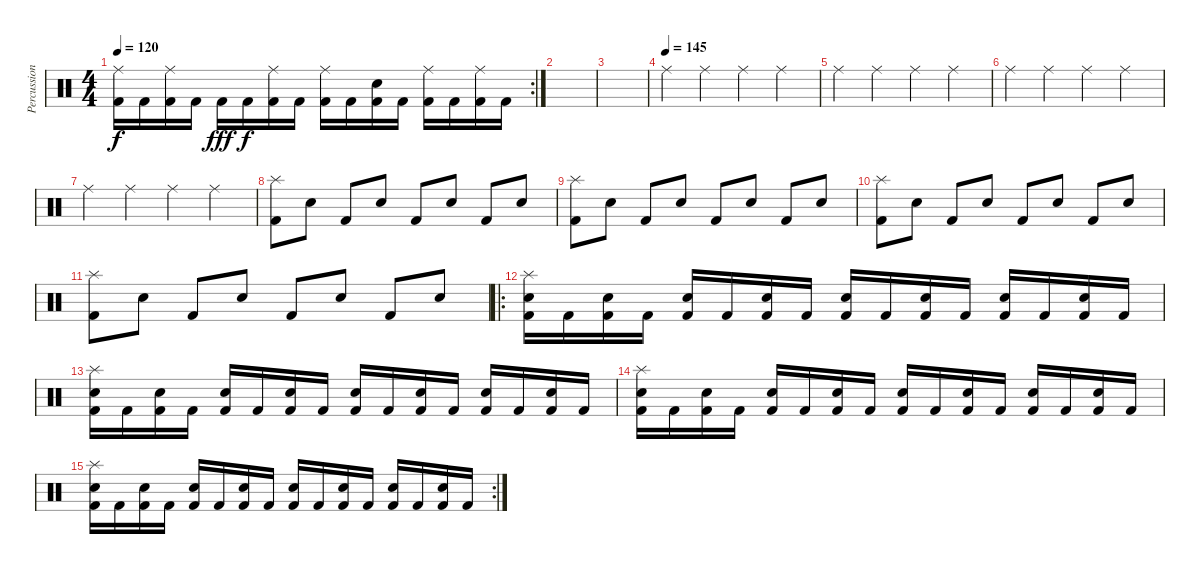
\track ("Percussions" "Percussion") {instrument percussion}
\staff {score}
\articulation defaults
\rc 2
\ts (4 4)
\tempo 120
\clef neutral
\ks c
("Ride (middle)" "Kick (hit) 2").16{dy f} "Kick (hit) 2".16 ("Ride (middle)" "Kick (hit) 2").16 "Kick (hit) 2".16 "Kick (hit) 2".16{dy fff} "Kick (hit) 2".16{dy f} ("Ride (middle)" "Kick (hit) 2").16 "Kick (hit) 2".16 ("Ride (middle)" "Kick (hit) 2").16 "Kick (hit) 2".16 ("Electric Snare (hit)" "Kick (hit) 2").16 "Kick (hit) 2".16 ("Ride (middle)" "Kick (hit) 2").16 "Kick (hit) 2".16 ("Ride (middle)" "Kick (hit) 2").16 "Kick (hit) 2".16 |
|
|
\tempo (145)
"Ride (middle)".4 "Ride (middle)".4 "Ride (middle)".4 "Ride (middle)".4 |
"Ride (middle)".4 "Ride (middle)".4 "Ride (middle)".4 "Ride (middle)".4 |
"Ride (middle)".4 "Ride (middle)".4 "Ride (middle)".4 "Ride (middle)".4 |
"Ride (middle)".4 "Ride (middle)".4 "Ride (middle)".4 "Ride (middle)".4 |
("Splash (hit)" "Kick (hit) 2").8 "Electric Snare (hit)".8 "Kick (hit) 2".8 "Electric Snare (hit)".8 "Kick (hit) 2".8 "Electric Snare (hit)".8 "Kick (hit) 2".8 "Electric Snare (hit)".8 |
("Splash (hit)" "Kick (hit) 2").8 "Electric Snare (hit)".8 "Kick (hit) 2".8 "Electric Snare (hit)".8 "Kick (hit) 2".8 "Electric Snare (hit)".8 "Kick (hit) 2".8 "Electric Snare (hit)".8 |
("Splash (hit)" "Kick (hit) 2").8 "Electric Snare (hit)".8 "Kick (hit) 2".8 "Electric Snare (hit)".8 "Kick (hit) 2".8 "Electric Snare (hit)".8 "Kick (hit) 2".8 "Electric Snare (hit)".8 |
("Splash (hit)" "Kick (hit) 2").8 "Electric Snare (hit)".8 "Kick (hit) 2".8 "Electric Snare (hit)".8 "Kick (hit) 2".8 "Electric Snare (hit)".8 "Kick (hit) 2".8 "Electric Snare (hit)".8 |
\ro
("Splash (hit)" "Electric Snare (hit)" "Kick (hit) 2").16 "Kick (hit) 2".16 ("Electric Snare (hit)" "Kick (hit) 2").16 "Kick (hit) 2".16 ("Electric Snare (hit)" "Kick (hit) 2").16 "Kick (hit) 2".16 ("Electric Snare (hit)" "Kick (hit) 2").16 "Kick (hit) 2".16 ("Electric Snare (hit)" "Kick (hit) 2").16 "Kick (hit) 2".16 ("Electric Snare (hit)" "Kick (hit) 2").16 "Kick (hit) 2".16 ("Electric Snare (hit)" "Kick (hit) 2").16 "Kick (hit) 2".16 ("Electric Snare (hit)" "Kick (hit) 2").16 "Kick (hit) 2".16 |
("Splash (hit)" "Electric Snare (hit)" "Kick (hit) 2").16 "Kick (hit) 2".16 ("Electric Snare (hit)" "Kick (hit) 2").16 "Kick (hit) 2".16 ("Electric Snare (hit)" "Kick (hit) 2").16 "Kick (hit) 2".16 ("Electric Snare (hit)" "Kick (hit) 2").16 "Kick (hit) 2".16 ("Electric Snare (hit)" "Kick (hit) 2").16 "Kick (hit) 2".16 ("Electric Snare (hit)" "Kick (hit) 2").16 "Kick (hit) 2".16 ("Electric Snare (hit)" "Kick (hit) 2").16 "Kick (hit) 2".16 ("Electric Snare (hit)" "Kick (hit) 2").16 "Kick (hit) 2".16 |
("Splash (hit)" "Electric Snare (hit)" "Kick (hit) 2").16 "Kick (hit) 2".16 ("Electric Snare (hit)" "Kick (hit) 2").16 "Kick (hit) 2".16 ("Electric Snare (hit)" "Kick (hit) 2").16 "Kick (hit) 2".16 ("Electric Snare (hit)" "Kick (hit) 2").16 "Kick (hit) 2".16 ("Electric Snare (hit)" "Kick (hit) 2").16 "Kick (hit) 2".16 ("Electric Snare (hit)" "Kick (hit) 2").16 "Kick (hit) 2".16 ("Electric Snare (hit)" "Kick (hit) 2").16 "Kick (hit) 2".16 ("Electric Snare (hit)" "Kick (hit) 2").16 "Kick (hit) 2".16 |
\rc 2
("Splash (hit)" "Electric Snare (hit)" "Kick (hit) 2").16 "Kick (hit) 2".16 ("Electric Snare (hit)" "Kick (hit) 2").16 "Kick (hit) 2".16 ("Electric Snare (hit)" "Kick (hit) 2").16 "Kick (hit) 2".16 ("Electric Snare (hit)" "Kick (hit) 2").16 "Kick (hit) 2".16 ("Electric Snare (hit)" "Kick (hit) 2").16 "Kick (hit) 2".16 ("Electric Snare (hit)" "Kick (hit) 2").16 "Kick (hit) 2".16 ("Electric Snare (hit)" "Kick (hit) 2").16 "Kick (hit) 2".16 ("Electric Snare (hit)" "Kick (hit) 2").16 "Kick (hit) 2".16
